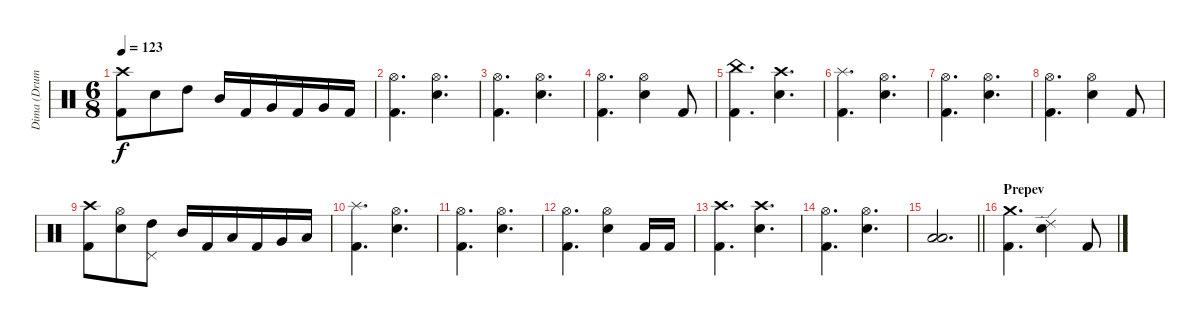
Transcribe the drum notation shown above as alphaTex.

\track ("Dima (Drums)" "Dima (Drum") {instrument percussion}
\staff {score}
\articulation defaults
\ts (6 8)
\tempo 123
\clef neutral
\ks c
("Crash high (hit)" "Kick (hit) 2").8{dy f} "Snare (hit) 2".8 "High Tom (hit)".8 "Mid Tom (hit)".16 "Kick (hit) 2".16 "Very Low Tom (hit)".16 "Kick (hit) 2".16 "Very Low Tom (hit)".16 "Kick (hit) 2".16 |
("Hi-Hat (open)" "Kick (hit) 2").4{d} ("Hi-Hat (open)" "Snare (hit) 2").4{d} |
("Hi-Hat (open)" "Kick (hit) 2").4{d} ("Hi-Hat (open)" "Snare (hit) 2").4{d} |
("Hi-Hat (open)" "Kick (hit) 2").4{d} ("Hi-Hat (open)" "Snare (hit) 2").4 "Kick (hit) 2".8 |
("China (hit)" "Kick (hit) 2").4{d} ("Crash high (hit)" "Snare (hit) 2").4{d} |
("Splash (hit)" "Kick (hit) 2").4{d} ("Hi-Hat (open)" "Snare (hit) 2").4{d} |
("Hi-Hat (open)" "Kick (hit) 2").4{d} ("Hi-Hat (open)" "Snare (hit) 2").4{d} |
("Hi-Hat (open)" "Kick (hit) 2").4{d} ("Hi-Hat (open)" "Snare (hit) 2").4 "Kick (hit) 2".8 |
("Crash high (hit)" "Kick (hit) 2").8 ("Hi-Hat (open)" "Snare (hit) 2").8 ("Pedal Hi-Hat (hit)" "High Tom (hit)").8 "Mid Tom (hit)".16 "Kick (hit) 2".16 "Low Floor Tom (hit)".16 "Kick (hit) 2".16 "Very Low Tom (hit)".16 "Low Tom (hit)".16 |
("Splash (hit)" "Kick (hit) 2").4{d} ("Hi-Hat (open)" "Snare (hit) 2").4{d} |
("Hi-Hat (open)" "Kick (hit) 2").4{d} ("Hi-Hat (open)" "Snare (hit) 2").4{d} |
("Hi-Hat (open)" "Kick (hit) 2").4{d} ("Hi-Hat (open)" "Snare (hit) 2").4 "Kick (hit) 2".16 "Kick (hit) 2".16 |
("Crash high (hit)" "Kick (hit) 2").4{d} ("Crash high (hit)" "Snare (hit) 2").4{d} |
("Hi-Hat (open)" "Kick (hit) 2").4{d} ("Hi-Hat (open)" "Snare (hit) 2").4{d} |
\barLineRight lightlight
("Low Tom (hit)" "Low Floor Tom (hit)").2{d} |
\section ("" "Prepev")
("Crash medium (hit)" "Kick (hit) 2").4{d} ("Ride (edge) 2" "Snare (hit) 2").4 "Kick (hit) 2".8
